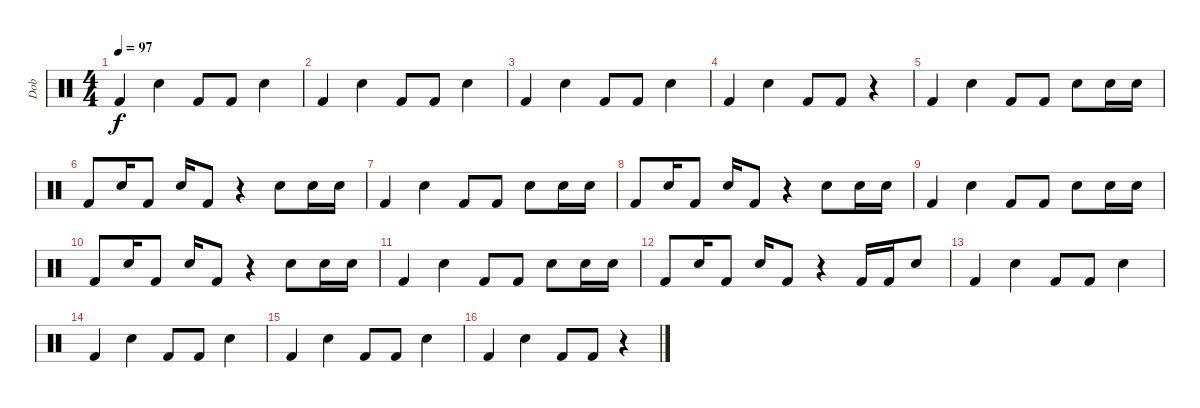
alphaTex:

\track ("Dob" "Dob") {instrument percussion}
\staff {score}
\articulation defaults
\ts (4 4)
\tempo 97
\clef neutral
\ks c "Kick (hit) 2".4{dy f} "Snare (hit) 2".4 "Kick (hit) 2".8 "Kick (hit) 2".8 "Snare (hit) 2".4
|
"Kick (hit) 2".4 "Snare (hit) 2".4 "Kick (hit) 2".8 "Kick (hit) 2".8 "Snare (hit) 2".4 |
"Kick (hit) 2".4 "Snare (hit) 2".4 "Kick (hit) 2".8 "Kick (hit) 2".8 "Snare (hit) 2".4 |
"Kick (hit) 2".4 "Snare (hit) 2".4 "Kick (hit) 2".8 "Kick (hit) 2".8 r.4 |
"Kick (hit) 2".4 "Snare (hit) 2".4 "Kick (hit) 2".8 "Kick (hit) 2".8 "Snare (hit) 2".8 "Snare (hit) 2".16 "Snare (hit) 2".16 |
"Kick (hit) 2".8 "Snare (hit) 2".16 "Kick (hit) 2".8 "Snare (hit) 2".16 "Kick (hit) 2".8 r.4 "Snare (hit) 2".8 "Snare (hit) 2".16 "Snare (hit) 2".16 |
"Kick (hit) 2".4 "Snare (hit) 2".4 "Kick (hit) 2".8 "Kick (hit) 2".8 "Snare (hit) 2".8 "Snare (hit) 2".16 "Snare (hit) 2".16 |
"Kick (hit) 2".8 "Snare (hit) 2".16 "Kick (hit) 2".8 "Snare (hit) 2".16 "Kick (hit) 2".8 r.4 "Snare (hit) 2".8 "Snare (hit) 2".16 "Snare (hit) 2".16 |
"Kick (hit) 2".4 "Snare (hit) 2".4 "Kick (hit) 2".8 "Kick (hit) 2".8 "Snare (hit) 2".8 "Snare (hit) 2".16 "Snare (hit) 2".16 |
"Kick (hit) 2".8 "Snare (hit) 2".16 "Kick (hit) 2".8 "Snare (hit) 2".16 "Kick (hit) 2".8 r.4 "Snare (hit) 2".8 "Snare (hit) 2".16 "Snare (hit) 2".16 |
"Kick (hit) 2".4 "Snare (hit) 2".4 "Kick (hit) 2".8 "Kick (hit) 2".8 "Snare (hit) 2".8 "Snare (hit) 2".16 "Snare (hit) 2".16 |
"Kick (hit) 2".8 "Snare (hit) 2".16 "Kick (hit) 2".8 "Snare (hit) 2".16 "Kick (hit) 2".8 r.4 "Kick (hit) 2".16 "Kick (hit) 2".16 "Snare (hit) 2".8 |
"Kick (hit) 2".4 "Snare (hit) 2".4 "Kick (hit) 2".8 "Kick (hit) 2".8 "Snare (hit) 2".4 |
"Kick (hit) 2".4 "Snare (hit) 2".4 "Kick (hit) 2".8 "Kick (hit) 2".8 "Snare (hit) 2".4 |
"Kick (hit) 2".4 "Snare (hit) 2".4 "Kick (hit) 2".8 "Kick (hit) 2".8 "Snare (hit) 2".4 |
"Kick (hit) 2".4 "Snare (hit) 2".4 "Kick (hit) 2".8 "Kick (hit) 2".8 r.4
